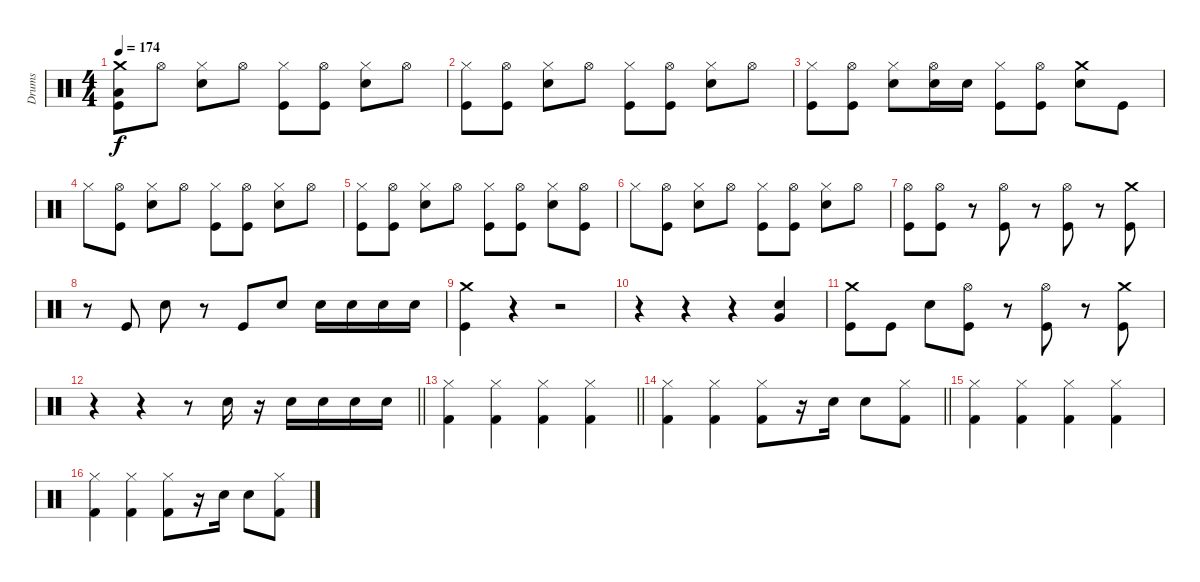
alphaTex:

\track ("Drums" "Drums") {instrument percussion}
\staff {score}
\articulation defaults
\ts (4 4)
\tempo 174
\clef neutral
\ks c
("Crash medium (hit)" "Low Floor Tom (hit)" "Kick (hit)").8{dy f} "Hi-Hat (open)".8 ("Hi-Hat (closed)" "Electric Snare (hit)").8 "Hi-Hat (open)".8 ("Hi-Hat (closed)" "Kick (hit)").8 ("Hi-Hat (open)" "Kick (hit)").8 ("Hi-Hat (closed)" "Electric Snare (hit)").8 "Hi-Hat (open)".8 |
("Hi-Hat (closed)" "Kick (hit)").8 ("Hi-Hat (open)" "Kick (hit)").8 ("Hi-Hat (closed)" "Electric Snare (hit)").8 "Hi-Hat (open)".8 ("Hi-Hat (closed)" "Kick (hit)").8 ("Hi-Hat (open)" "Kick (hit)").8 ("Hi-Hat (closed)" "Electric Snare (hit)").8 "Hi-Hat (open)".8 |
("Hi-Hat (closed)" "Kick (hit)").8 ("Hi-Hat (open)" "Kick (hit)").8 ("Hi-Hat (closed)" "Electric Snare (hit)").8 ("Hi-Hat (open)" "Electric Snare (hit)").16 "Electric Snare (hit)".16 ("Hi-Hat (closed)" "Kick (hit)").8 ("Hi-Hat (open)" "Kick (hit)").8 ("Crash medium (hit)" "Electric Snare (hit)").8 "Kick (hit)".8 |
"Hi-Hat (closed)".8 ("Hi-Hat (open)" "Kick (hit)").8 ("Hi-Hat (closed)" "Electric Snare (hit)").8 "Hi-Hat (open)".8 ("Hi-Hat (closed)" "Kick (hit)").8 ("Hi-Hat (open)" "Kick (hit)").8 ("Hi-Hat (closed)" "Electric Snare (hit)").8 "Hi-Hat (open)".8 |
("Hi-Hat (closed)" "Kick (hit)").8 ("Hi-Hat (open)" "Kick (hit)").8 ("Hi-Hat (closed)" "Electric Snare (hit)").8 "Hi-Hat (open)".8 ("Hi-Hat (closed)" "Kick (hit)").8 ("Hi-Hat (open)" "Kick (hit)").8 ("Hi-Hat (closed)" "Electric Snare (hit)").8 ("Hi-Hat (open)" "Kick (hit)").8 |
"Hi-Hat (closed)".8 ("Hi-Hat (open)" "Kick (hit)").8 ("Hi-Hat (closed)" "Electric Snare (hit)").8 "Hi-Hat (open)".8 ("Hi-Hat (closed)" "Kick (hit)").8 ("Hi-Hat (open)" "Kick (hit)").8 ("Hi-Hat (closed)" "Electric Snare (hit)").8 "Hi-Hat (open)".8 |
("Hi-Hat (open)" "Kick (hit)").8 ("Hi-Hat (open)" "Kick (hit)").8 r.8 ("Hi-Hat (open)" "Kick (hit)").8 r.8 ("Hi-Hat (open)" "Kick (hit)").8 r.8 ("Crash medium (hit)" "Kick (hit)").8 |
r.8 "Kick (hit)".8 "Electric Snare (hit)".8 r.8 "Kick (hit)".8 "Electric Snare (hit)".8 "Electric Snare (hit)".16 "Electric Snare (hit)".16 "Electric Snare (hit)".16 "Electric Snare (hit)".16 |
("Crash medium (hit)" "Kick (hit)").4 r.4 r.2 |
r.4 r.4 r.4 ("Electric Snare (hit)" "Very Low Tom (hit)").4 |
("Crash medium (hit)" "Kick (hit)").8 "Kick (hit)".8 "Electric Snare (hit)".8 ("Hi-Hat (open)" "Kick (hit)").8 r.8 ("Hi-Hat (open)" "Kick (hit)").8 r.8 ("Crash medium (hit)" "Kick (hit)").8 |
\barLineRight lightlight
r.4 r.4 r.8 "Snare (hit) 2".16 r.16 "Snare (hit) 2".16 "Snare (hit) 2".16 "Snare (hit) 2".16 "Snare (hit) 2".16 |
\barLineRight lightlight
("Kick (hit) 2" "Hi-Hat (closed)").4 ("Kick (hit) 2" "Hi-Hat (closed)").4 ("Kick (hit) 2" "Hi-Hat (closed)").4 ("Kick (hit) 2" "Hi-Hat (closed)").4 |
\barLineRight lightlight
("Kick (hit) 2" "Hi-Hat (closed)").4 ("Kick (hit) 2" "Hi-Hat (closed)").4 ("Kick (hit) 2" "Hi-Hat (closed)").8 r.16 "Snare (hit) 2".16 "Snare (hit) 2".8 ("Kick (hit) 2" "Hi-Hat (closed)").8 |
("Kick (hit) 2" "Hi-Hat (closed)").4 ("Kick (hit) 2" "Hi-Hat (closed)").4 ("Kick (hit) 2" "Hi-Hat (closed)").4 ("Kick (hit) 2" "Hi-Hat (closed)").4 |
("Kick (hit) 2" "Hi-Hat (closed)").4 ("Kick (hit) 2" "Hi-Hat (closed)").4 ("Kick (hit) 2" "Hi-Hat (closed)").8 r.16 "Snare (hit) 2".16 "Snare (hit) 2".8 ("Kick (hit) 2" "Hi-Hat (closed)").8
